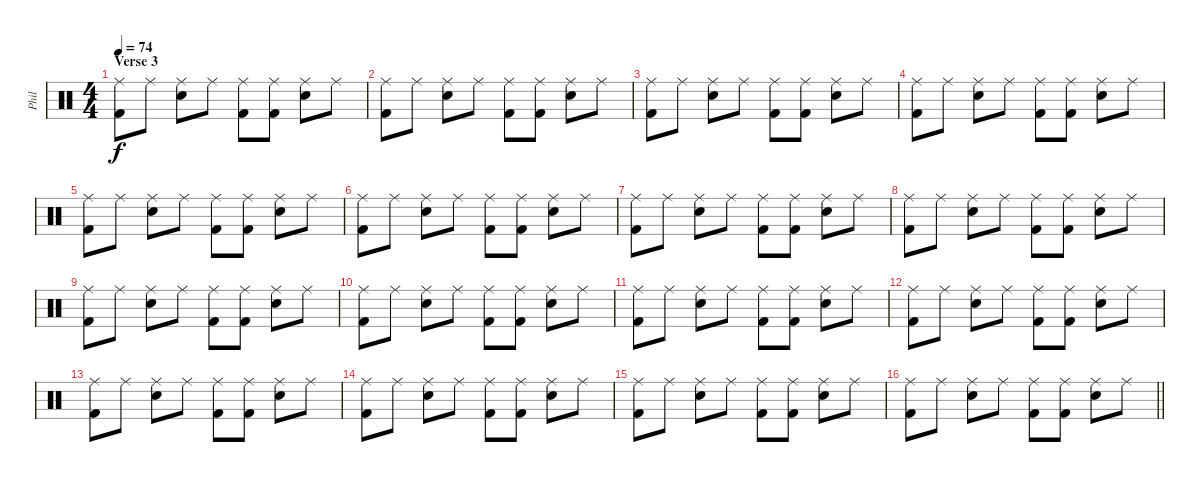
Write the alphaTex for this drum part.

\track ("Phil" "Phil") {instrument percussion}
\staff {score}
\articulation defaults
\ts (4 4)
\section ("" "Verse 3")
\tempo 74
\clef neutral
\ks c
("Ride (middle)" "Kick (hit) 2").8{dy f} "Ride (middle)".8 ("Ride (middle)" "Snare (hit) 2").8 "Ride (middle)".8 ("Ride (middle)" "Kick (hit) 2").8 ("Ride (middle)" "Kick (hit) 2").8 ("Ride (middle)" "Snare (hit) 2").8 "Ride (middle)".8 |
("Ride (middle)" "Kick (hit) 2").8 "Ride (middle)".8 ("Ride (middle)" "Snare (hit) 2").8 "Ride (middle)".8 ("Ride (middle)" "Kick (hit) 2").8 ("Ride (middle)" "Kick (hit) 2").8 ("Ride (middle)" "Snare (hit) 2").8 "Ride (middle)".8 |
("Ride (middle)" "Kick (hit) 2").8 "Ride (middle)".8 ("Ride (middle)" "Snare (hit) 2").8 "Ride (middle)".8 ("Ride (middle)" "Kick (hit) 2").8 ("Ride (middle)" "Kick (hit) 2").8 ("Ride (middle)" "Snare (hit) 2").8 "Ride (middle)".8 |
("Ride (middle)" "Kick (hit) 2").8 "Ride (middle)".8 ("Ride (middle)" "Snare (hit) 2").8 "Ride (middle)".8 ("Ride (middle)" "Kick (hit) 2").8 ("Ride (middle)" "Kick (hit) 2").8 ("Ride (middle)" "Snare (hit) 2").8 "Ride (middle)".8 |
("Ride (middle)" "Kick (hit) 2").8 "Ride (middle)".8 ("Ride (middle)" "Snare (hit) 2").8 "Ride (middle)".8 ("Ride (middle)" "Kick (hit) 2").8 ("Ride (middle)" "Kick (hit) 2").8 ("Ride (middle)" "Snare (hit) 2").8 "Ride (middle)".8 |
("Ride (middle)" "Kick (hit) 2").8 "Ride (middle)".8 ("Ride (middle)" "Snare (hit) 2").8 "Ride (middle)".8 ("Ride (middle)" "Kick (hit) 2").8 ("Ride (middle)" "Kick (hit) 2").8 ("Ride (middle)" "Snare (hit) 2").8 "Ride (middle)".8 |
("Ride (middle)" "Kick (hit) 2").8 "Ride (middle)".8 ("Ride (middle)" "Snare (hit) 2").8 "Ride (middle)".8 ("Ride (middle)" "Kick (hit) 2").8 ("Ride (middle)" "Kick (hit) 2").8 ("Ride (middle)" "Snare (hit) 2").8 "Ride (middle)".8 |
("Ride (middle)" "Kick (hit) 2").8 "Ride (middle)".8 ("Ride (middle)" "Snare (hit) 2").8 "Ride (middle)".8 ("Ride (middle)" "Kick (hit) 2").8 ("Ride (middle)" "Kick (hit) 2").8 ("Ride (middle)" "Snare (hit) 2").8 "Ride (middle)".8 |
("Ride (middle)" "Kick (hit) 2").8 "Ride (middle)".8 ("Ride (middle)" "Snare (hit) 2").8 "Ride (middle)".8 ("Ride (middle)" "Kick (hit) 2").8 ("Ride (middle)" "Kick (hit) 2").8 ("Ride (middle)" "Snare (hit) 2").8 "Ride (middle)".8 |
("Ride (middle)" "Kick (hit) 2").8 "Ride (middle)".8 ("Ride (middle)" "Snare (hit) 2").8 "Ride (middle)".8 ("Ride (middle)" "Kick (hit) 2").8 ("Ride (middle)" "Kick (hit) 2").8 ("Ride (middle)" "Snare (hit) 2").8 "Ride (middle)".8 |
("Ride (middle)" "Kick (hit) 2").8 "Ride (middle)".8 ("Ride (middle)" "Snare (hit) 2").8 "Ride (middle)".8 ("Ride (middle)" "Kick (hit) 2").8 ("Ride (middle)" "Kick (hit) 2").8 ("Ride (middle)" "Snare (hit) 2").8 "Ride (middle)".8 |
("Ride (middle)" "Kick (hit) 2").8 "Ride (middle)".8 ("Ride (middle)" "Snare (hit) 2").8 "Ride (middle)".8 ("Ride (middle)" "Kick (hit) 2").8 ("Ride (middle)" "Kick (hit) 2").8 ("Ride (middle)" "Snare (hit) 2").8 "Ride (middle)".8 |
("Ride (middle)" "Kick (hit) 2").8 "Ride (middle)".8 ("Ride (middle)" "Snare (hit) 2").8 "Ride (middle)".8 ("Ride (middle)" "Kick (hit) 2").8 ("Ride (middle)" "Kick (hit) 2").8 ("Ride (middle)" "Snare (hit) 2").8 "Ride (middle)".8 |
("Ride (middle)" "Kick (hit) 2").8 "Ride (middle)".8 ("Ride (middle)" "Snare (hit) 2").8 "Ride (middle)".8 ("Ride (middle)" "Kick (hit) 2").8 ("Ride (middle)" "Kick (hit) 2").8 ("Ride (middle)" "Snare (hit) 2").8 "Ride (middle)".8 |
("Ride (middle)" "Kick (hit) 2").8 "Ride (middle)".8 ("Ride (middle)" "Snare (hit) 2").8 "Ride (middle)".8 ("Ride (middle)" "Kick (hit) 2").8 ("Ride (middle)" "Kick (hit) 2").8 ("Ride (middle)" "Snare (hit) 2").8 "Ride (middle)".8 |
\barLineRight lightlight
("Ride (middle)" "Kick (hit) 2").8 "Ride (middle)".8 ("Ride (middle)" "Snare (hit) 2").8 "Ride (middle)".8 ("Ride (middle)" "Kick (hit) 2").8 ("Ride (middle)" "Kick (hit) 2").8 ("Ride (middle)" "Snare (hit) 2").8 "Ride (middle)".8
